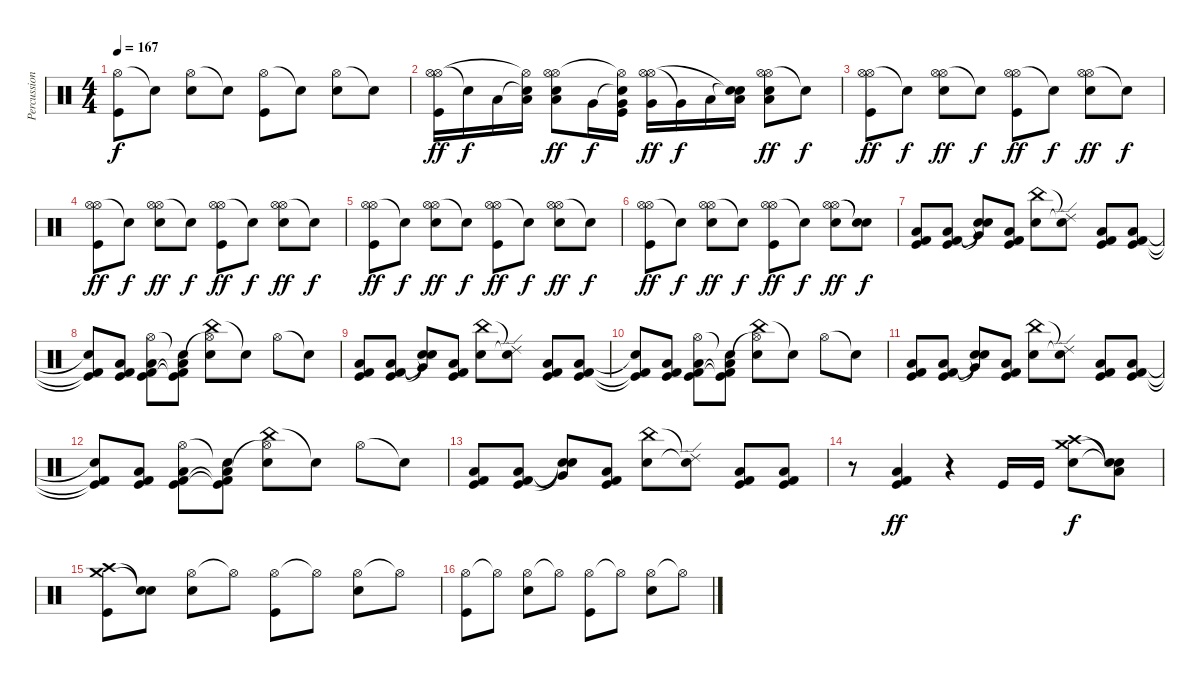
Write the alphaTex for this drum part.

\track ("Percussions" "Percussion") {instrument percussion}
\staff {score}
\articulation defaults
\ts (4 4)
\tempo 167
\clef neutral
\ks c
("Hi-Hat (open)" "Kick (hit)").8{dy f volume 15} "Snare (hit)"{t}.8 ("Hi-Hat (open)" "Electric Snare (hit)").8 "Snare (hit)"{t}.8 ("Hi-Hat (open)" "Kick (hit)").8 "Snare (hit)"{t}.8 ("Hi-Hat (open)" "Electric Snare (hit)").8 "Snare (hit)"{t}.8 |
("Hi-Hat (open)" "Hi-Hat (open)" "Kick (hit)").16{dy ff volume 15} "Snare (hit)"{t}.16{dy f} "Low Tom (hit)".16 ("Snare (hit)"{t} "Hi-Hat (open)"{t} "Low Tom (hit)").16 ("Hi-Hat (open)" "Hi-Hat (open)" "Electric Snare (hit)" "Low Tom (hit)").8{dy ff} "Very Low Tom (hit)".16{dy f} ("Snare (hit)"{t} "Hi-Hat (open)"{t} "Very Low Tom (hit)" "Kick (hit)").16 ("Hi-Hat (open)" "Hi-Hat (open)" "Very Low Tom (hit)").16{dy ff} "Very Low Tom (hit)"{t}.16{dy f} "Low Floor Tom (hit)".16 ("Snare (hit)"{t} "Snare (hit)"{t} "Low Floor Tom (hit)").16 ("Hi-Hat (open)" "Hi-Hat (open)" "Electric Snare (hit)" "Low Floor Tom (hit)").8{dy ff} "Snare (hit)"{t}.8{dy f} |
("Hi-Hat (open)" "Hi-Hat (open)" "Kick (hit)").8{dy ff volume 15} "Snare (hit)"{t}.8{dy f} ("Hi-Hat (open)" "Hi-Hat (open)" "Electric Snare (hit)").8{dy ff} "Snare (hit)"{t}.8{dy f} ("Hi-Hat (open)" "Hi-Hat (open)" "Kick (hit)").8{dy ff} "Snare (hit)"{t}.8{dy f} ("Hi-Hat (open)" "Hi-Hat (open)" "Electric Snare (hit)").8{dy ff} "Snare (hit)"{t}.8{dy f} |
("Hi-Hat (open)" "Hi-Hat (open)" "Kick (hit)").8{dy ff volume 15} "Snare (hit)"{t}.8{dy f} ("Hi-Hat (open)" "Hi-Hat (open)" "Electric Snare (hit)").8{dy ff} "Snare (hit)"{t}.8{dy f} ("Hi-Hat (open)" "Hi-Hat (open)" "Kick (hit)").8{dy ff} "Snare (hit)"{t}.8{dy f} ("Hi-Hat (open)" "Hi-Hat (open)" "Electric Snare (hit)").8{dy ff} "Snare (hit)"{t}.8{dy f} |
("Hi-Hat (open)" "Hi-Hat (open)" "Kick (hit)").8{dy ff volume 15} "Snare (hit)"{t}.8{dy f} ("Hi-Hat (open)" "Hi-Hat (open)" "Electric Snare (hit)").8{dy ff} "Snare (hit)"{t}.8{dy f} ("Hi-Hat (open)" "Hi-Hat (open)" "Kick (hit)").8{dy ff} "Snare (hit)"{t}.8{dy f} ("Hi-Hat (open)" "Hi-Hat (open)" "Electric Snare (hit)").8{dy ff} "Snare (hit)"{t}.8{dy f} |
("Hi-Hat (open)" "Hi-Hat (open)" "Kick (hit)").8{dy ff volume 15} "Snare (hit)"{t}.8{dy f} ("Hi-Hat (open)" "Hi-Hat (open)" "Electric Snare (hit)").8{dy ff} "Snare (hit)"{t}.8{dy f} ("Hi-Hat (open)" "Hi-Hat (open)" "Kick (hit)").8{dy ff} "Snare (hit)"{t}.8{dy f} ("Hi-Hat (open)" "Hi-Hat (open)" "Electric Snare (hit)").8{dy ff} ("Snare (hit)"{t} "Snare (hit)"{t}).8{dy f} |
("Low Floor Tom (hit)" "Kick (hit) 2" "Kick (hit)").8{volume 15} ("Low Floor Tom (hit)" "Kick (hit) 2" "Kick (hit)").8 ("Very Low Tom (hit)"{t} "Snare (hit)"{t} "Snare (hit)"{t}).8 ("Low Floor Tom (hit)" "Kick (hit) 2" "Kick (hit)").8 ("China (hit)" "Electric Snare (hit)").8 ("Ride (edge) 2"{t} "Snare (hit)"{t}).8 ("Low Floor Tom (hit)" "Kick (hit) 2" "Kick (hit)").8 ("Low Floor Tom (hit)" "Kick (hit) 2" "Kick (hit)").8 |
("Electric Snare (hit)"{t} "Kick (hit) 2"{t} "Kick (hit)"{t}).8 ("Low Floor Tom (hit)" "Kick (hit) 2" "Kick (hit)").8 ("Hi-Hat (open)" "Low Floor Tom (hit)" "Kick (hit) 2" "Kick (hit)").8 ("Snare (hit)"{t} "Low Floor Tom (hit)" "Kick (hit) 2"{t} "Kick (hit)"{t}).8 ("China (hit)" "Hi-Hat (open)"{t} "Electric Snare (hit)").8 "Snare (hit)"{t}.8 "Hi-Hat (open)".8 "Snare (hit)"{t}.8 |
("Low Floor Tom (hit)" "Kick (hit) 2" "Kick (hit)").8{volume 15} ("Low Floor Tom (hit)" "Kick (hit) 2" "Kick (hit)").8 ("Very Low Tom (hit)"{t} "Snare (hit)"{t} "Snare (hit)"{t}).8 ("Low Floor Tom (hit)" "Kick (hit) 2" "Kick (hit)").8 ("China (hit)" "Electric Snare (hit)").8 ("Ride (edge) 2"{t} "Snare (hit)"{t}).8 ("Low Floor Tom (hit)" "Kick (hit) 2" "Kick (hit)").8 ("Low Floor Tom (hit)" "Kick (hit) 2" "Kick (hit)").8 |
("Electric Snare (hit)"{t} "Kick (hit) 2"{t} "Kick (hit)"{t}).8 ("Low Floor Tom (hit)" "Kick (hit) 2" "Kick (hit)").8 ("Hi-Hat (open)" "Low Floor Tom (hit)" "Kick (hit) 2" "Kick (hit)").8 ("Snare (hit)"{t} "Low Floor Tom (hit)" "Kick (hit) 2"{t} "Kick (hit)"{t}).8 ("China (hit)" "Hi-Hat (open)"{t} "Electric Snare (hit)").8 "Snare (hit)"{t}.8 "Hi-Hat (open)".8 "Snare (hit)"{t}.8 |
("Low Floor Tom (hit)" "Kick (hit) 2" "Kick (hit)").8{volume 15} ("Low Floor Tom (hit)" "Kick (hit) 2" "Kick (hit)").8 ("Very Low Tom (hit)"{t} "Snare (hit)"{t} "Snare (hit)"{t}).8 ("Low Floor Tom (hit)" "Kick (hit) 2" "Kick (hit)").8 ("China (hit)" "Electric Snare (hit)").8 ("Ride (edge) 2"{t} "Snare (hit)"{t}).8 ("Low Floor Tom (hit)" "Kick (hit) 2" "Kick (hit)").8 ("Low Floor Tom (hit)" "Kick (hit) 2" "Kick (hit)").8 |
("Electric Snare (hit)"{t} "Kick (hit) 2"{t} "Kick (hit)"{t}).8 ("Low Floor Tom (hit)" "Kick (hit) 2" "Kick (hit)").8 ("Hi-Hat (open)" "Low Floor Tom (hit)" "Kick (hit) 2" "Kick (hit)").8 ("Snare (hit)"{t} "Low Floor Tom (hit)" "Kick (hit) 2"{t} "Kick (hit)"{t}).8 ("China (hit)" "Hi-Hat (open)"{t} "Electric Snare (hit)").8 "Snare (hit)"{t}.8 "Hi-Hat (open)".8 "Snare (hit)"{t}.8 |
("Low Floor Tom (hit)" "Kick (hit) 2" "Kick (hit)").8{volume 15} ("Low Floor Tom (hit)" "Kick (hit) 2" "Kick (hit)").8 ("Very Low Tom (hit)"{t} "Snare (hit)"{t} "Snare (hit)"{t}).8 ("Low Floor Tom (hit)" "Kick (hit) 2" "Kick (hit)").8 ("China (hit)" "Electric Snare (hit)").8 ("Ride (edge) 2"{t} "Snare (hit)"{t}).8 ("Low Floor Tom (hit)" "Kick (hit) 2" "Kick (hit)").8 ("Low Floor Tom (hit)" "Kick (hit) 2" "Kick (hit)").8 |
r.8{volume 15} ("Low Floor Tom (hit)" "Kick (hit) 2" "Kick (hit)").4{dy ff} r.4 "Kick (hit)".16 "Kick (hit)".16 ("Crash medium (hit)" "Crash high (hit)" "Electric Snare (hit)").8{dy f} ("Snare (hit)"{t} "Low Tom (hit)"{t} "Snare (hit)"{t}).8 |
("Crash high (hit)" "Crash medium (hit)" "Kick (hit)").8 ("Snare (hit)"{t} "Snare (hit)"{t}).8 ("Hi-Hat (open)" "Electric Snare (hit)").8 "Hi-Hat (open)"{t}.8 ("Hi-Hat (open)" "Kick (hit)").8 "Hi-Hat (open)"{t}.8 ("Hi-Hat (open)" "Electric Snare (hit)").8 "Hi-Hat (open)"{t}.8 |
("Hi-Hat (open)" "Kick (hit)").8 "Hi-Hat (open)"{t}.8 ("Hi-Hat (open)" "Electric Snare (hit)").8 "Hi-Hat (open)"{t}.8 ("Hi-Hat (open)" "Kick (hit)").8 "Hi-Hat (open)"{t}.8 ("Hi-Hat (open)" "Electric Snare (hit)").8 "Hi-Hat (open)"{t}.8
